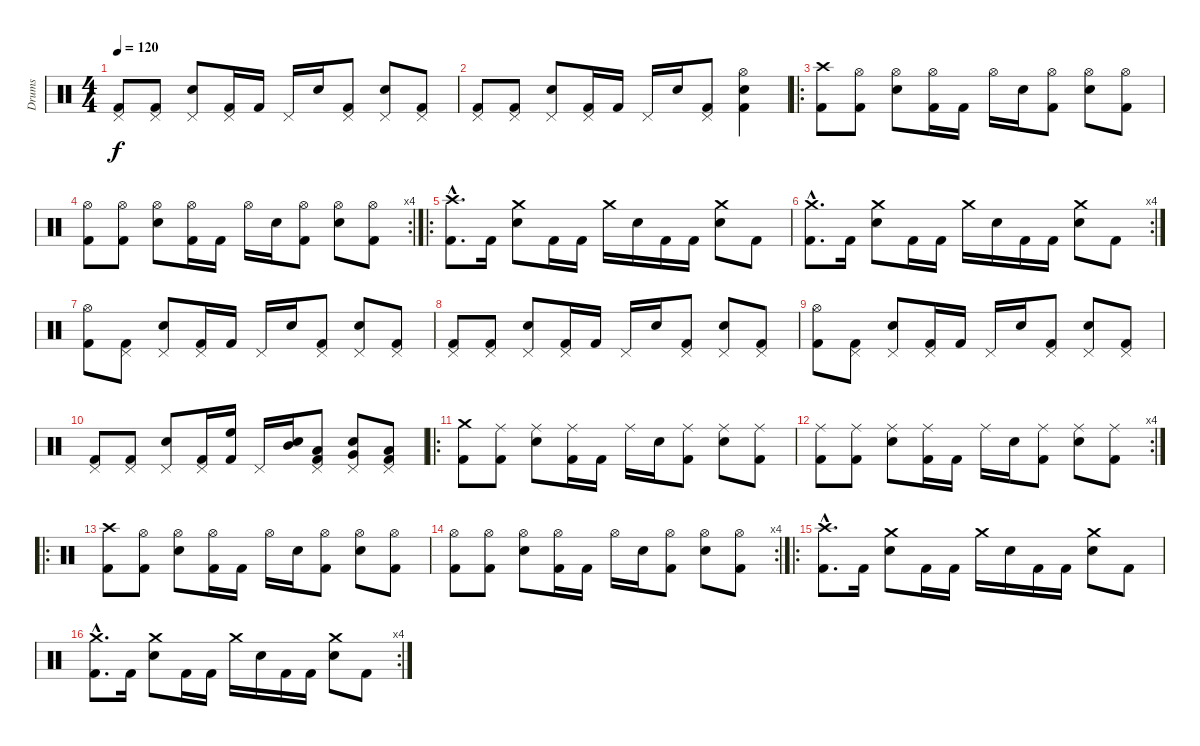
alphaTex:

\track ("Drums" "Drums") {instrument percussion}
\staff {score}
\articulation defaults
\ts (4 4)
\tempo 120
\clef neutral
\ks c
("Pedal Hi-Hat (hit)" "Kick (hit) 2").8{dy f} ("Pedal Hi-Hat (hit)" "Kick (hit) 2").8 ("Pedal Hi-Hat (hit)" "Electric Snare (hit)").8 ("Pedal Hi-Hat (hit)" "Kick (hit) 2").16 "Kick (hit) 2".16 "Pedal Hi-Hat (hit)".16 "Electric Snare (hit)".16 ("Pedal Hi-Hat (hit)" "Kick (hit) 2").8 ("Pedal Hi-Hat (hit)" "Electric Snare (hit)").8 ("Pedal Hi-Hat (hit)" "Kick (hit) 2").8 |
("Pedal Hi-Hat (hit)" "Kick (hit) 2").8 ("Pedal Hi-Hat (hit)" "Kick (hit) 2").8 ("Pedal Hi-Hat (hit)" "Electric Snare (hit)").8 ("Pedal Hi-Hat (hit)" "Kick (hit) 2").16 "Kick (hit) 2".16 "Pedal Hi-Hat (hit)".16 "Electric Snare (hit)".16 ("Pedal Hi-Hat (hit)" "Kick (hit) 2").8 ("Hi-Hat (open)" "Electric Snare (hit)" "Kick (hit) 2").4 |
\ro
("Crash high (hit)" "Kick (hit) 2").8 ("Hi-Hat (open)" "Kick (hit) 2").8 ("Hi-Hat (open)" "Electric Snare (hit)").8 ("Hi-Hat (open)" "Kick (hit) 2").16 "Kick (hit) 2".16 "Hi-Hat (open)".16 "Electric Snare (hit)".16 ("Hi-Hat (open)" "Kick (hit) 2").8 ("Hi-Hat (open)" "Electric Snare (hit)").8 ("Hi-Hat (open)" "Kick (hit) 2").8 |
\rc 4
("Hi-Hat (open)" "Kick (hit) 2").8 ("Hi-Hat (open)" "Kick (hit) 2").8 ("Hi-Hat (open)" "Electric Snare (hit)").8 ("Hi-Hat (open)" "Kick (hit) 2").16 "Kick (hit) 2".16 "Hi-Hat (open)".16 "Electric Snare (hit)".16 ("Hi-Hat (open)" "Kick (hit) 2").8 ("Hi-Hat (open)" "Electric Snare (hit)").8 ("Hi-Hat (open)" "Kick (hit) 2").8 |
\ro
("Crash high (hit)"{hac} "Kick (hit) 2"{hac}).8{d} "Kick (hit) 2".16 ("Crash medium (hit)" "Electric Snare (hit)").8 "Kick (hit) 2".16 "Kick (hit) 2".16 "Crash medium (hit)".16 "Electric Snare (hit)".16 "Kick (hit) 2".16 "Kick (hit) 2".16 ("Crash medium (hit)" "Electric Snare (hit)").8 "Kick (hit) 2".8 |
\rc 4
("Crash medium (hit)"{hac} "Kick (hit) 2"{hac}).8{d} "Kick (hit) 2".16 ("Crash medium (hit)" "Electric Snare (hit)").8 "Kick (hit) 2".16 "Kick (hit) 2".16 "Crash medium (hit)".16 "Electric Snare (hit)".16 "Kick (hit) 2".16 "Kick (hit) 2".16 ("Crash medium (hit)" "Electric Snare (hit)").8 "Kick (hit) 2".8 |
("Hi-Hat (open)" "Kick (hit) 2").8 ("Pedal Hi-Hat (hit)" "Kick (hit) 2").8 ("Pedal Hi-Hat (hit)" "Electric Snare (hit)").8 ("Pedal Hi-Hat (hit)" "Kick (hit) 2").16 "Kick (hit) 2".16 "Pedal Hi-Hat (hit)".16 "Electric Snare (hit)".16 ("Pedal Hi-Hat (hit)" "Kick (hit) 2").8 ("Pedal Hi-Hat (hit)" "Electric Snare (hit)").8 ("Pedal Hi-Hat (hit)" "Kick (hit) 2").8 |
("Pedal Hi-Hat (hit)" "Kick (hit) 2").8 ("Pedal Hi-Hat (hit)" "Kick (hit) 2").8 ("Pedal Hi-Hat (hit)" "Electric Snare (hit)").8 ("Pedal Hi-Hat (hit)" "Kick (hit) 2").16 "Kick (hit) 2".16 "Pedal Hi-Hat (hit)".16 "Electric Snare (hit)".16 ("Pedal Hi-Hat (hit)" "Kick (hit) 2").8 ("Pedal Hi-Hat (hit)" "Electric Snare (hit)").8 ("Pedal Hi-Hat (hit)" "Kick (hit) 2").8 |
("Hi-Hat (open)" "Kick (hit) 2").8 ("Pedal Hi-Hat (hit)" "Kick (hit) 2").8 ("Pedal Hi-Hat (hit)" "Electric Snare (hit)").8 ("Pedal Hi-Hat (hit)" "Kick (hit) 2").16 "Kick (hit) 2".16 "Pedal Hi-Hat (hit)".16 "Electric Snare (hit)".16 ("Pedal Hi-Hat (hit)" "Kick (hit) 2").8 ("Pedal Hi-Hat (hit)" "Electric Snare (hit)").8 ("Pedal Hi-Hat (hit)" "Kick (hit) 2").8 |
("Pedal Hi-Hat (hit)" "Kick (hit) 2").8 ("Pedal Hi-Hat (hit)" "Kick (hit) 2").8 ("Pedal Hi-Hat (hit)" "Electric Snare (hit)").8 ("Pedal Hi-Hat (hit)" "Kick (hit) 2").16 ("Kick (hit) 2" "High Floor Tom (hit)").16 "Pedal Hi-Hat (hit)".16 ("Electric Snare (hit)" "Mid Tom (hit)").16 ("Pedal Hi-Hat (hit)" "Kick (hit) 2" "Low Tom (hit)").8 ("Pedal Hi-Hat (hit)" "Electric Snare (hit)" "Very Low Tom (hit)").8 ("Pedal Hi-Hat (hit)" "Kick (hit) 2" "Low Floor Tom (hit)").8 |
\ro
("Crash medium (hit)" "Kick (hit) 2").8 ("Ride (middle)" "Kick (hit) 2").8 ("Ride (middle)" "Electric Snare (hit)").8 ("Ride (middle)" "Kick (hit) 2").16 "Kick (hit) 2".16 "Ride (middle)".16 "Electric Snare (hit)".16 ("Ride (middle)" "Kick (hit) 2").8 ("Ride (middle)" "Electric Snare (hit)").8 ("Ride (middle)" "Kick (hit) 2").8 |
\rc 4
("Ride (middle)" "Kick (hit) 2").8 ("Ride (middle)" "Kick (hit) 2").8 ("Ride (middle)" "Electric Snare (hit)").8 ("Ride (middle)" "Kick (hit) 2").16 "Kick (hit) 2".16 "Ride (middle)".16 "Electric Snare (hit)".16 ("Ride (middle)" "Kick (hit) 2").8 ("Ride (middle)" "Electric Snare (hit)").8 ("Ride (middle)" "Kick (hit) 2").8 |
\ro
("Crash high (hit)" "Kick (hit) 2").8 ("Hi-Hat (open)" "Kick (hit) 2").8 ("Hi-Hat (open)" "Electric Snare (hit)").8 ("Hi-Hat (open)" "Kick (hit) 2").16 "Kick (hit) 2".16 "Hi-Hat (open)".16 "Electric Snare (hit)".16 ("Hi-Hat (open)" "Kick (hit) 2").8 ("Hi-Hat (open)" "Electric Snare (hit)").8 ("Hi-Hat (open)" "Kick (hit) 2").8 |
\rc 4
("Hi-Hat (open)" "Kick (hit) 2").8 ("Hi-Hat (open)" "Kick (hit) 2").8 ("Hi-Hat (open)" "Electric Snare (hit)").8 ("Hi-Hat (open)" "Kick (hit) 2").16 "Kick (hit) 2".16 "Hi-Hat (open)".16 "Electric Snare (hit)".16 ("Hi-Hat (open)" "Kick (hit) 2").8 ("Hi-Hat (open)" "Electric Snare (hit)").8 ("Hi-Hat (open)" "Kick (hit) 2").8 |
\ro
("Crash high (hit)"{hac} "Kick (hit) 2"{hac}).8{d} "Kick (hit) 2".16 ("Crash medium (hit)" "Electric Snare (hit)").8 "Kick (hit) 2".16 "Kick (hit) 2".16 "Crash medium (hit)".16 "Electric Snare (hit)".16 "Kick (hit) 2".16 "Kick (hit) 2".16 ("Crash medium (hit)" "Electric Snare (hit)").8 "Kick (hit) 2".8 |
\rc 4
("Crash medium (hit)"{hac} "Kick (hit) 2"{hac}).8{d} "Kick (hit) 2".16 ("Crash medium (hit)" "Electric Snare (hit)").8 "Kick (hit) 2".16 "Kick (hit) 2".16 "Crash medium (hit)".16 "Electric Snare (hit)".16 "Kick (hit) 2".16 "Kick (hit) 2".16 ("Crash medium (hit)" "Electric Snare (hit)").8 "Kick (hit) 2".8
